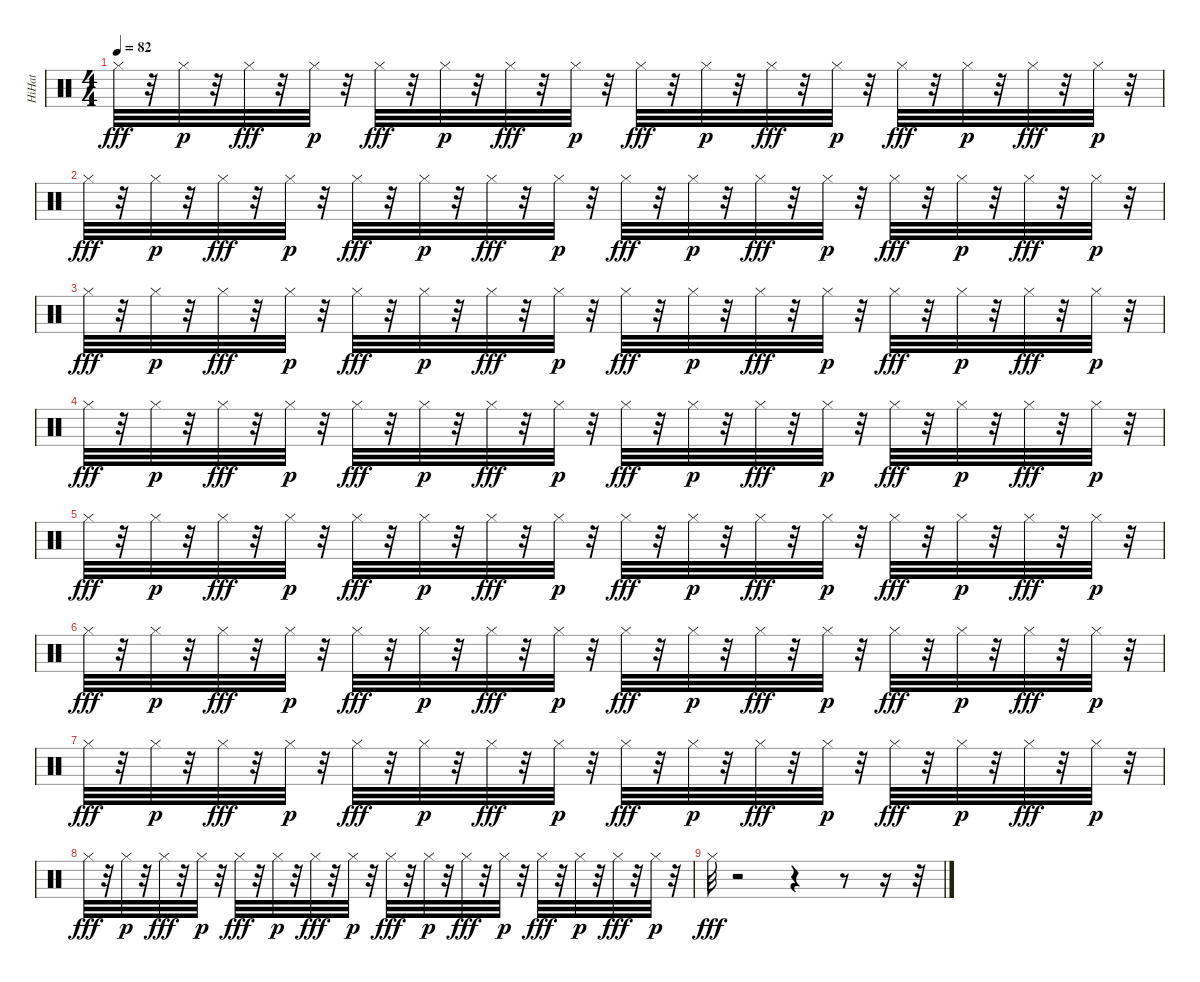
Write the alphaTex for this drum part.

\track ("HiHat" "HiHat") {instrument percussion}
\staff {score}
\articulation defaults
\ts (4 4)
\tempo 82
\clef neutral
\ks c "Hi-Hat (closed)".32{dy fff}
r.32 "Hi-Hat (closed)".32{dy p} r.32 "Hi-Hat (closed)".32{dy fff} r.32 "Hi-Hat (closed)".32{dy p} r.32 "Hi-Hat (closed)".32{dy fff} r.32 "Hi-Hat (closed)".32{dy p} r.32 "Hi-Hat (closed)".32{dy fff} r.32 "Hi-Hat (closed)".32{dy p} r.32 "Hi-Hat (closed)".32{dy fff} r.32 "Hi-Hat (closed)".32{dy p} r.32 "Hi-Hat (closed)".32{dy fff} r.32 "Hi-Hat (closed)".32{dy p} r.32 "Hi-Hat (closed)".32{dy fff} r.32 "Hi-Hat (closed)".32{dy p} r.32 "Hi-Hat (closed)".32{dy fff} r.32 "Hi-Hat (closed)".32{dy p} r.32 |
"Hi-Hat (closed)".32{dy fff} r.32 "Hi-Hat (closed)".32{dy p} r.32 "Hi-Hat (closed)".32{dy fff} r.32 "Hi-Hat (closed)".32{dy p} r.32 "Hi-Hat (closed)".32{dy fff} r.32 "Hi-Hat (closed)".32{dy p} r.32 "Hi-Hat (closed)".32{dy fff} r.32 "Hi-Hat (closed)".32{dy p} r.32 "Hi-Hat (closed)".32{dy fff} r.32 "Hi-Hat (closed)".32{dy p} r.32 "Hi-Hat (closed)".32{dy fff} r.32 "Hi-Hat (closed)".32{dy p} r.32 "Hi-Hat (closed)".32{dy fff} r.32 "Hi-Hat (closed)".32{dy p} r.32 "Hi-Hat (closed)".32{dy fff} r.32 "Hi-Hat (closed)".32{dy p} r.32 |
"Hi-Hat (closed)".32{dy fff} r.32 "Hi-Hat (closed)".32{dy p} r.32 "Hi-Hat (closed)".32{dy fff} r.32 "Hi-Hat (closed)".32{dy p} r.32 "Hi-Hat (closed)".32{dy fff} r.32 "Hi-Hat (closed)".32{dy p} r.32 "Hi-Hat (closed)".32{dy fff} r.32 "Hi-Hat (closed)".32{dy p} r.32 "Hi-Hat (closed)".32{dy fff} r.32 "Hi-Hat (closed)".32{dy p} r.32 "Hi-Hat (closed)".32{dy fff} r.32 "Hi-Hat (closed)".32{dy p} r.32 "Hi-Hat (closed)".32{dy fff} r.32 "Hi-Hat (closed)".32{dy p} r.32 "Hi-Hat (closed)".32{dy fff} r.32 "Hi-Hat (closed)".32{dy p} r.32 |
"Hi-Hat (closed)".32{dy fff} r.32 "Hi-Hat (closed)".32{dy p} r.32 "Hi-Hat (closed)".32{dy fff} r.32 "Hi-Hat (closed)".32{dy p} r.32 "Hi-Hat (closed)".32{dy fff} r.32 "Hi-Hat (closed)".32{dy p} r.32 "Hi-Hat (closed)".32{dy fff} r.32 "Hi-Hat (closed)".32{dy p} r.32 "Hi-Hat (closed)".32{dy fff} r.32 "Hi-Hat (closed)".32{dy p} r.32 "Hi-Hat (closed)".32{dy fff} r.32 "Hi-Hat (closed)".32{dy p} r.32 "Hi-Hat (closed)".32{dy fff} r.32 "Hi-Hat (closed)".32{dy p} r.32 "Hi-Hat (closed)".32{dy fff} r.32 "Hi-Hat (closed)".32{dy p} r.32 |
"Hi-Hat (closed)".32{dy fff} r.32 "Hi-Hat (closed)".32{dy p} r.32 "Hi-Hat (closed)".32{dy fff} r.32 "Hi-Hat (closed)".32{dy p} r.32 "Hi-Hat (closed)".32{dy fff} r.32 "Hi-Hat (closed)".32{dy p} r.32 "Hi-Hat (closed)".32{dy fff} r.32 "Hi-Hat (closed)".32{dy p} r.32 "Hi-Hat (closed)".32{dy fff} r.32 "Hi-Hat (closed)".32{dy p} r.32 "Hi-Hat (closed)".32{dy fff} r.32 "Hi-Hat (closed)".32{dy p} r.32 "Hi-Hat (closed)".32{dy fff} r.32 "Hi-Hat (closed)".32{dy p} r.32 "Hi-Hat (closed)".32{dy fff} r.32 "Hi-Hat (closed)".32{dy p} r.32 |
"Hi-Hat (closed)".32{dy fff} r.32 "Hi-Hat (closed)".32{dy p} r.32 "Hi-Hat (closed)".32{dy fff} r.32 "Hi-Hat (closed)".32{dy p} r.32 "Hi-Hat (closed)".32{dy fff} r.32 "Hi-Hat (closed)".32{dy p} r.32 "Hi-Hat (closed)".32{dy fff} r.32 "Hi-Hat (closed)".32{dy p} r.32 "Hi-Hat (closed)".32{dy fff} r.32 "Hi-Hat (closed)".32{dy p} r.32 "Hi-Hat (closed)".32{dy fff} r.32 "Hi-Hat (closed)".32{dy p} r.32 "Hi-Hat (closed)".32{dy fff} r.32 "Hi-Hat (closed)".32{dy p} r.32 "Hi-Hat (closed)".32{dy fff} r.32 "Hi-Hat (closed)".32{dy p} r.32 |
"Hi-Hat (closed)".32{dy fff} r.32 "Hi-Hat (closed)".32{dy p} r.32 "Hi-Hat (closed)".32{dy fff} r.32 "Hi-Hat (closed)".32{dy p} r.32 "Hi-Hat (closed)".32{dy fff} r.32 "Hi-Hat (closed)".32{dy p} r.32 "Hi-Hat (closed)".32{dy fff} r.32 "Hi-Hat (closed)".32{dy p} r.32 "Hi-Hat (closed)".32{dy fff} r.32 "Hi-Hat (closed)".32{dy p} r.32 "Hi-Hat (closed)".32{dy fff} r.32 "Hi-Hat (closed)".32{dy p} r.32 "Hi-Hat (closed)".32{dy fff} r.32 "Hi-Hat (closed)".32{dy p} r.32 "Hi-Hat (closed)".32{dy fff} r.32 "Hi-Hat (closed)".32{dy p} r.32 |
"Hi-Hat (closed)".32{dy fff} r.32 "Hi-Hat (closed)".32{dy p} r.32 "Hi-Hat (closed)".32{dy fff} r.32 "Hi-Hat (closed)".32{dy p} r.32 "Hi-Hat (closed)".32{dy fff} r.32 "Hi-Hat (closed)".32{dy p} r.32 "Hi-Hat (closed)".32{dy fff} r.32 "Hi-Hat (closed)".32{dy p} r.32 "Hi-Hat (closed)".32{dy fff} r.32 "Hi-Hat (closed)".32{dy p} r.32 "Hi-Hat (closed)".32{dy fff} r.32 "Hi-Hat (closed)".32{dy p} r.32 "Hi-Hat (closed)".32{dy fff} r.32 "Hi-Hat (closed)".32{dy p} r.32 "Hi-Hat (closed)".32{dy fff} r.32 "Hi-Hat (closed)".32{dy p} r.32 |
"Hi-Hat (closed)".32{dy fff} r.2 r.4 r.8 r.16 r.32
